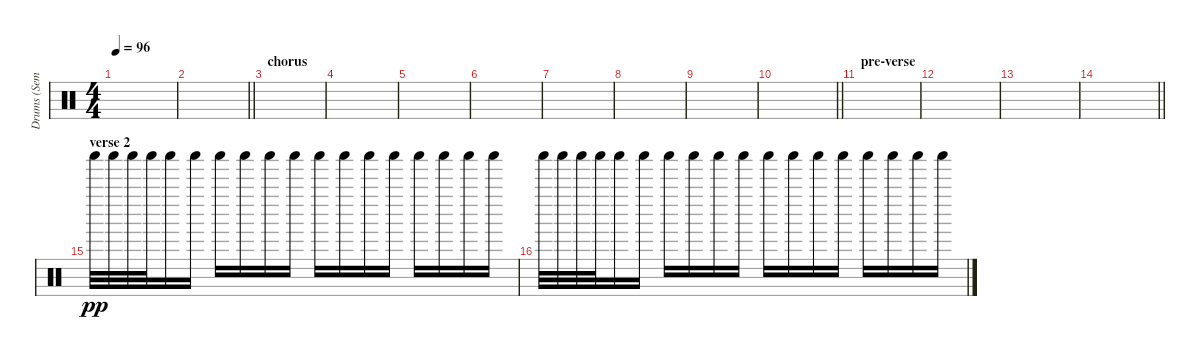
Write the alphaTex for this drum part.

\track ("Drums (Semple)" "Drums (Sem") {instrument percussion}
\staff {score}
\articulation defaults
\ts (4 4)
\tempo 96
\clef neutral
\ks c
|
\barLineRight lightlight
|
\section ("" "chorus")
|
|
|
|
|
|
|
\barLineRight lightlight
|
\section ("" "pre-verse")
|
|
|
\barLineRight lightlight
|
\section ("" "verse 2")
"Shaker (hit)".32{dy pp} "Shaker (hit)".32 "Shaker (hit)".32 "Shaker (hit)".32 "Shaker (hit)".16 "Shaker (hit)".16 "Shaker (hit)".16 "Shaker (hit)".16 "Shaker (hit)".16 "Shaker (hit)".16 "Shaker (hit)".16 "Shaker (hit)".16 "Shaker (hit)".16 "Shaker (hit)".16 "Shaker (hit)".16 "Shaker (hit)".16 "Shaker (hit)".16 "Shaker (hit)".16 |
"Shaker (hit)".32 "Shaker (hit)".32 "Shaker (hit)".32 "Shaker (hit)".32 "Shaker (hit)".16 "Shaker (hit)".16 "Shaker (hit)".16 "Shaker (hit)".16 "Shaker (hit)".16 "Shaker (hit)".16 "Shaker (hit)".16 "Shaker (hit)".16 "Shaker (hit)".16 "Shaker (hit)".16 "Shaker (hit)".16 "Shaker (hit)".16 "Shaker (hit)".16 "Shaker (hit)".16
